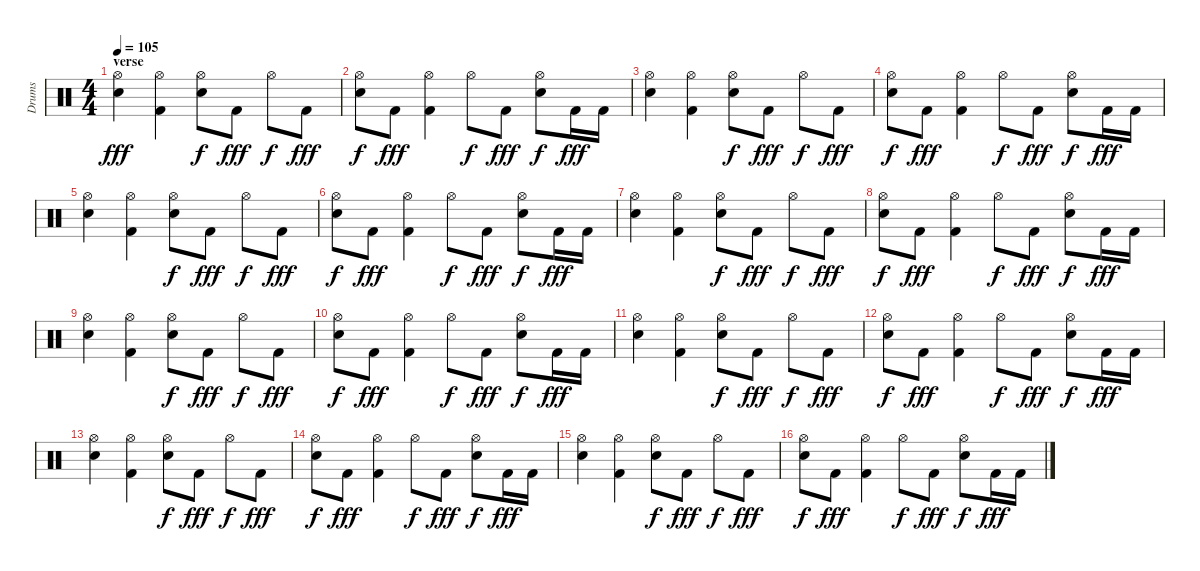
\track ("Drums" "Drums") {instrument percussion}
\staff {score}
\articulation defaults
\ts (4 4)
\section ("" "verse")
\tempo 105
\clef neutral
\ks c
("Hi-Hat (open)" "Electric Snare (hit)").4{dy fff} ("Hi-Hat (open)" "Kick (hit) 2").4 ("Hi-Hat (open)" "Electric Snare (hit)").8{dy f} "Kick (hit) 2".8{dy fff} "Hi-Hat (open)".8{dy f} "Kick (hit) 2".8{dy fff} |
("Hi-Hat (open)" "Electric Snare (hit)").8{dy f} "Kick (hit) 2".8{dy fff} ("Hi-Hat (open)" "Kick (hit) 2").4 "Hi-Hat (open)".8{dy f} "Kick (hit) 2".8{dy fff} ("Hi-Hat (open)" "Electric Snare (hit)").8{dy f} "Kick (hit) 2".16{dy fff} "Kick (hit) 2".16 |
("Hi-Hat (open)" "Electric Snare (hit)").4 ("Hi-Hat (open)" "Kick (hit) 2").4 ("Hi-Hat (open)" "Electric Snare (hit)").8{dy f} "Kick (hit) 2".8{dy fff} "Hi-Hat (open)".8{dy f} "Kick (hit) 2".8{dy fff} |
("Hi-Hat (open)" "Electric Snare (hit)").8{dy f} "Kick (hit) 2".8{dy fff} ("Hi-Hat (open)" "Kick (hit) 2").4 "Hi-Hat (open)".8{dy f} "Kick (hit) 2".8{dy fff} ("Hi-Hat (open)" "Electric Snare (hit)").8{dy f} "Kick (hit) 2".16{dy fff} "Kick (hit) 2".16 |
("Hi-Hat (open)" "Electric Snare (hit)").4 ("Hi-Hat (open)" "Kick (hit) 2").4 ("Hi-Hat (open)" "Electric Snare (hit)").8{dy f} "Kick (hit) 2".8{dy fff} "Hi-Hat (open)".8{dy f} "Kick (hit) 2".8{dy fff} |
("Hi-Hat (open)" "Electric Snare (hit)").8{dy f} "Kick (hit) 2".8{dy fff} ("Hi-Hat (open)" "Kick (hit) 2").4 "Hi-Hat (open)".8{dy f} "Kick (hit) 2".8{dy fff} ("Hi-Hat (open)" "Electric Snare (hit)").8{dy f} "Kick (hit) 2".16{dy fff} "Kick (hit) 2".16 |
("Hi-Hat (open)" "Electric Snare (hit)").4 ("Hi-Hat (open)" "Kick (hit) 2").4 ("Hi-Hat (open)" "Electric Snare (hit)").8{dy f} "Kick (hit) 2".8{dy fff} "Hi-Hat (open)".8{dy f} "Kick (hit) 2".8{dy fff} |
("Hi-Hat (open)" "Electric Snare (hit)").8{dy f} "Kick (hit) 2".8{dy fff} ("Hi-Hat (open)" "Kick (hit) 2").4 "Hi-Hat (open)".8{dy f} "Kick (hit) 2".8{dy fff} ("Hi-Hat (open)" "Electric Snare (hit)").8{dy f} "Kick (hit) 2".16{dy fff} "Kick (hit) 2".16 |
("Hi-Hat (open)" "Electric Snare (hit)").4 ("Hi-Hat (open)" "Kick (hit) 2").4 ("Hi-Hat (open)" "Electric Snare (hit)").8{dy f} "Kick (hit) 2".8{dy fff} "Hi-Hat (open)".8{dy f} "Kick (hit) 2".8{dy fff} |
("Hi-Hat (open)" "Electric Snare (hit)").8{dy f} "Kick (hit) 2".8{dy fff} ("Hi-Hat (open)" "Kick (hit) 2").4 "Hi-Hat (open)".8{dy f} "Kick (hit) 2".8{dy fff} ("Hi-Hat (open)" "Electric Snare (hit)").8{dy f} "Kick (hit) 2".16{dy fff} "Kick (hit) 2".16 |
("Hi-Hat (open)" "Electric Snare (hit)").4 ("Hi-Hat (open)" "Kick (hit) 2").4 ("Hi-Hat (open)" "Electric Snare (hit)").8{dy f} "Kick (hit) 2".8{dy fff} "Hi-Hat (open)".8{dy f} "Kick (hit) 2".8{dy fff} |
("Hi-Hat (open)" "Electric Snare (hit)").8{dy f} "Kick (hit) 2".8{dy fff} ("Hi-Hat (open)" "Kick (hit) 2").4 "Hi-Hat (open)".8{dy f} "Kick (hit) 2".8{dy fff} ("Hi-Hat (open)" "Electric Snare (hit)").8{dy f} "Kick (hit) 2".16{dy fff} "Kick (hit) 2".16 |
("Hi-Hat (open)" "Electric Snare (hit)").4 ("Hi-Hat (open)" "Kick (hit) 2").4 ("Hi-Hat (open)" "Electric Snare (hit)").8{dy f} "Kick (hit) 2".8{dy fff} "Hi-Hat (open)".8{dy f} "Kick (hit) 2".8{dy fff} |
("Hi-Hat (open)" "Electric Snare (hit)").8{dy f} "Kick (hit) 2".8{dy fff} ("Hi-Hat (open)" "Kick (hit) 2").4 "Hi-Hat (open)".8{dy f} "Kick (hit) 2".8{dy fff} ("Hi-Hat (open)" "Electric Snare (hit)").8{dy f} "Kick (hit) 2".16{dy fff} "Kick (hit) 2".16 |
("Hi-Hat (open)" "Electric Snare (hit)").4 ("Hi-Hat (open)" "Kick (hit) 2").4 ("Hi-Hat (open)" "Electric Snare (hit)").8{dy f} "Kick (hit) 2".8{dy fff} "Hi-Hat (open)".8{dy f} "Kick (hit) 2".8{dy fff} |
("Hi-Hat (open)" "Electric Snare (hit)").8{dy f} "Kick (hit) 2".8{dy fff} ("Hi-Hat (open)" "Kick (hit) 2").4 "Hi-Hat (open)".8{dy f} "Kick (hit) 2".8{dy fff} ("Hi-Hat (open)" "Electric Snare (hit)").8{dy f} "Kick (hit) 2".16{dy fff} "Kick (hit) 2".16
